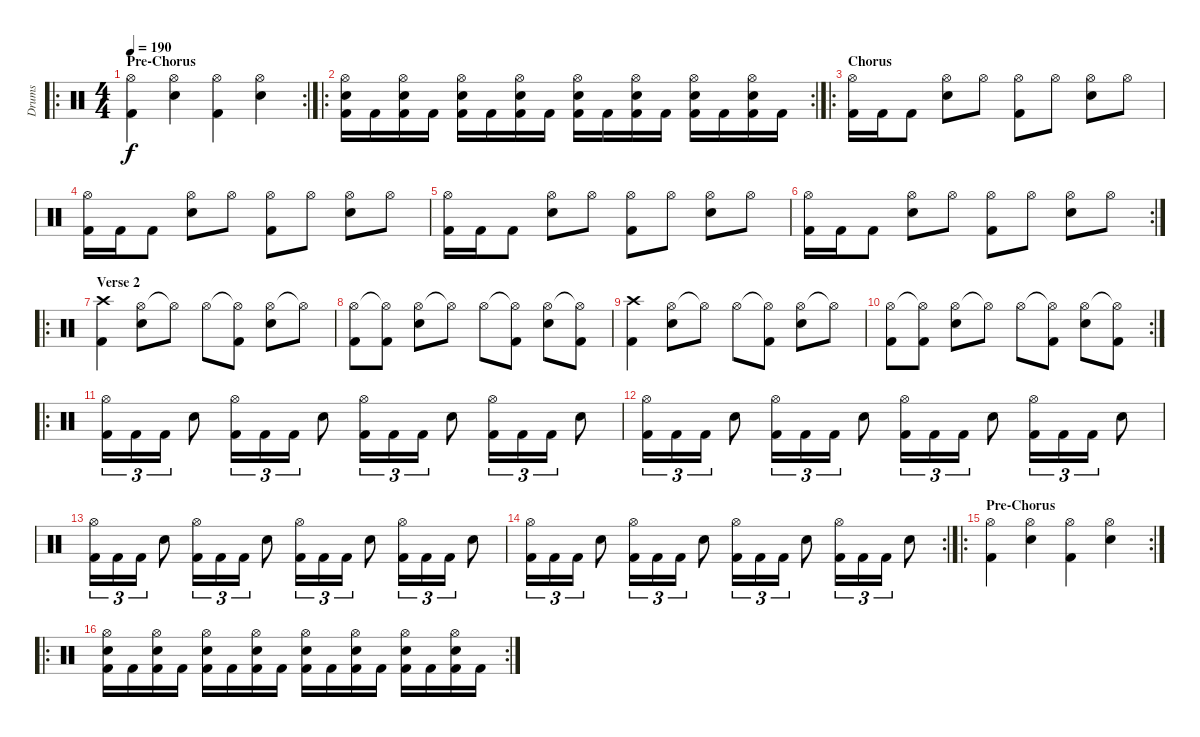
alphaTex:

\track ("Drums" "Drums") {instrument percussion}
\staff {score}
\articulation defaults
\ro
\rc 2
\ts (4 4)
\section ("" "Pre-Chorus")
\tempo 190
\clef neutral
\ks c
("Hi-Hat (open)" "Kick (hit) 2").4{dy f} ("Hi-Hat (open)" "Electric Snare (hit)").4 ("Hi-Hat (open)" "Kick (hit) 2").4 ("Hi-Hat (open)" "Electric Snare (hit)").4 |
\ro
\rc 2
("Kick (hit) 2" "Electric Snare (hit)" "Hi-Hat (open)").16 "Kick (hit) 2".16 ("Kick (hit) 2" "Electric Snare (hit)" "Hi-Hat (open)").16 "Kick (hit) 2".16 ("Kick (hit) 2" "Electric Snare (hit)" "Hi-Hat (open)").16 "Kick (hit) 2".16 ("Kick (hit) 2" "Electric Snare (hit)" "Hi-Hat (open)").16 "Kick (hit) 2".16 ("Kick (hit) 2" "Electric Snare (hit)" "Hi-Hat (open)").16 "Kick (hit) 2".16 ("Kick (hit) 2" "Electric Snare (hit)" "Hi-Hat (open)").16 "Kick (hit) 2".16 ("Kick (hit) 2" "Electric Snare (hit)" "Hi-Hat (open)").16 "Kick (hit) 2".16 ("Kick (hit) 2" "Electric Snare (hit)" "Hi-Hat (open)").16 "Kick (hit) 2".16 |
\ro
\section ("" "Chorus")
("Kick (hit) 2" "Hi-Hat (open)").16 "Kick (hit) 2".16 "Kick (hit) 2".8 ("Hi-Hat (open)" "Electric Snare (hit)").8 "Hi-Hat (open)".8 ("Hi-Hat (open)" "Kick (hit) 2").8 "Hi-Hat (open)".8 ("Hi-Hat (open)" "Electric Snare (hit)").8 "Hi-Hat (open)".8 |
("Kick (hit) 2" "Hi-Hat (open)").16 "Kick (hit) 2".16 "Kick (hit) 2".8 ("Hi-Hat (open)" "Electric Snare (hit)").8 "Hi-Hat (open)".8 ("Hi-Hat (open)" "Kick (hit) 2").8 "Hi-Hat (open)".8 ("Hi-Hat (open)" "Electric Snare (hit)").8 "Hi-Hat (open)".8 |
("Kick (hit) 2" "Hi-Hat (open)").16 "Kick (hit) 2".16 "Kick (hit) 2".8 ("Hi-Hat (open)" "Electric Snare (hit)").8 "Hi-Hat (open)".8 ("Hi-Hat (open)" "Kick (hit) 2").8 "Hi-Hat (open)".8 ("Hi-Hat (open)" "Electric Snare (hit)").8 "Hi-Hat (open)".8 |
\rc 2
("Kick (hit) 2" "Hi-Hat (open)").16 "Kick (hit) 2".16 "Kick (hit) 2".8 ("Hi-Hat (open)" "Electric Snare (hit)").8 "Hi-Hat (open)".8 ("Hi-Hat (open)" "Kick (hit) 2").8 "Hi-Hat (open)".8 ("Hi-Hat (open)" "Electric Snare (hit)").8 "Hi-Hat (open)".8 |
\ro
\section ("" "Verse 2")
("Crash high (hit)" "Kick (hit) 2").4 ("Hi-Hat (open)" "Electric Snare (hit)").8 "Hi-Hat (open)"{t}.8 "Hi-Hat (open)".8 ("Hi-Hat (open)"{t} "Kick (hit) 2").8 ("Hi-Hat (open)" "Electric Snare (hit)").8 "Hi-Hat (open)"{t}.8 |
("Hi-Hat (open)" "Kick (hit) 2").8 ("Hi-Hat (open)"{t} "Kick (hit) 2").8 ("Hi-Hat (open)" "Electric Snare (hit)").8 "Hi-Hat (open)"{t}.8 "Hi-Hat (open)".8 ("Hi-Hat (open)"{t} "Kick (hit) 2").8 ("Hi-Hat (open)" "Electric Snare (hit)").8 ("Hi-Hat (open)"{t} "Kick (hit) 2").8 |
("Crash high (hit)" "Kick (hit) 2").4 ("Hi-Hat (open)" "Electric Snare (hit)").8 "Hi-Hat (open)"{t}.8 "Hi-Hat (open)".8 ("Hi-Hat (open)"{t} "Kick (hit) 2").8 ("Hi-Hat (open)" "Electric Snare (hit)").8 "Hi-Hat (open)"{t}.8 |
\rc 2
("Hi-Hat (open)" "Kick (hit) 2").8 ("Hi-Hat (open)"{t} "Kick (hit) 2").8 ("Hi-Hat (open)" "Electric Snare (hit)").8 "Hi-Hat (open)"{t}.8 "Hi-Hat (open)".8 ("Hi-Hat (open)"{t} "Kick (hit) 2").8 ("Hi-Hat (open)" "Electric Snare (hit)").8 ("Hi-Hat (open)"{t} "Kick (hit) 2").8 |
\ro
("Kick (hit) 2" "Hi-Hat (open)").16{tu (3 2)} "Kick (hit) 2".16{tu (3 2)} "Kick (hit) 2".16{tu (3 2)} "Electric Snare (hit)".8 ("Kick (hit) 2" "Hi-Hat (open)").16{tu (3 2)} "Kick (hit) 2".16{tu (3 2)} "Kick (hit) 2".16{tu (3 2)} "Electric Snare (hit)".8 ("Kick (hit) 2" "Hi-Hat (open)").16{tu (3 2)} "Kick (hit) 2".16{tu (3 2)} "Kick (hit) 2".16{tu (3 2)} "Electric Snare (hit)".8 ("Kick (hit) 2" "Hi-Hat (open)").16{tu (3 2)} "Kick (hit) 2".16{tu (3 2)} "Kick (hit) 2".16{tu (3 2)} "Electric Snare (hit)".8 |
("Kick (hit) 2" "Hi-Hat (open)").16{tu (3 2)} "Kick (hit) 2".16{tu (3 2)} "Kick (hit) 2".16{tu (3 2)} "Electric Snare (hit)".8 ("Kick (hit) 2" "Hi-Hat (open)").16{tu (3 2)} "Kick (hit) 2".16{tu (3 2)} "Kick (hit) 2".16{tu (3 2)} "Electric Snare (hit)".8 ("Kick (hit) 2" "Hi-Hat (open)").16{tu (3 2)} "Kick (hit) 2".16{tu (3 2)} "Kick (hit) 2".16{tu (3 2)} "Electric Snare (hit)".8 ("Kick (hit) 2" "Hi-Hat (open)").16{tu (3 2)} "Kick (hit) 2".16{tu (3 2)} "Kick (hit) 2".16{tu (3 2)} "Electric Snare (hit)".8 |
("Kick (hit) 2" "Hi-Hat (open)").16{tu (3 2)} "Kick (hit) 2".16{tu (3 2)} "Kick (hit) 2".16{tu (3 2)} "Electric Snare (hit)".8 ("Kick (hit) 2" "Hi-Hat (open)").16{tu (3 2)} "Kick (hit) 2".16{tu (3 2)} "Kick (hit) 2".16{tu (3 2)} "Electric Snare (hit)".8 ("Kick (hit) 2" "Hi-Hat (open)").16{tu (3 2)} "Kick (hit) 2".16{tu (3 2)} "Kick (hit) 2".16{tu (3 2)} "Electric Snare (hit)".8 ("Kick (hit) 2" "Hi-Hat (open)").16{tu (3 2)} "Kick (hit) 2".16{tu (3 2)} "Kick (hit) 2".16{tu (3 2)} "Electric Snare (hit)".8 |
\rc 2
("Kick (hit) 2" "Hi-Hat (open)").16{tu (3 2)} "Kick (hit) 2".16{tu (3 2)} "Kick (hit) 2".16{tu (3 2)} "Electric Snare (hit)".8 ("Kick (hit) 2" "Hi-Hat (open)").16{tu (3 2)} "Kick (hit) 2".16{tu (3 2)} "Kick (hit) 2".16{tu (3 2)} "Electric Snare (hit)".8 ("Kick (hit) 2" "Hi-Hat (open)").16{tu (3 2)} "Kick (hit) 2".16{tu (3 2)} "Kick (hit) 2".16{tu (3 2)} "Electric Snare (hit)".8 ("Kick (hit) 2" "Hi-Hat (open)").16{tu (3 2)} "Kick (hit) 2".16{tu (3 2)} "Kick (hit) 2".16{tu (3 2)} "Electric Snare (hit)".8 |
\ro
\rc 2
\section ("" "Pre-Chorus")
("Hi-Hat (open)" "Kick (hit) 2").4 ("Hi-Hat (open)" "Electric Snare (hit)").4 ("Hi-Hat (open)" "Kick (hit) 2").4 ("Hi-Hat (open)" "Electric Snare (hit)").4 |
\ro
\rc 2
("Kick (hit) 2" "Electric Snare (hit)" "Hi-Hat (open)").16 "Kick (hit) 2".16 ("Kick (hit) 2" "Electric Snare (hit)" "Hi-Hat (open)").16 "Kick (hit) 2".16 ("Kick (hit) 2" "Electric Snare (hit)" "Hi-Hat (open)").16 "Kick (hit) 2".16 ("Kick (hit) 2" "Electric Snare (hit)" "Hi-Hat (open)").16 "Kick (hit) 2".16 ("Kick (hit) 2" "Electric Snare (hit)" "Hi-Hat (open)").16 "Kick (hit) 2".16 ("Kick (hit) 2" "Electric Snare (hit)" "Hi-Hat (open)").16 "Kick (hit) 2".16 ("Kick (hit) 2" "Electric Snare (hit)" "Hi-Hat (open)").16 "Kick (hit) 2".16 ("Kick (hit) 2" "Electric Snare (hit)" "Hi-Hat (open)").16 "Kick (hit) 2".16
